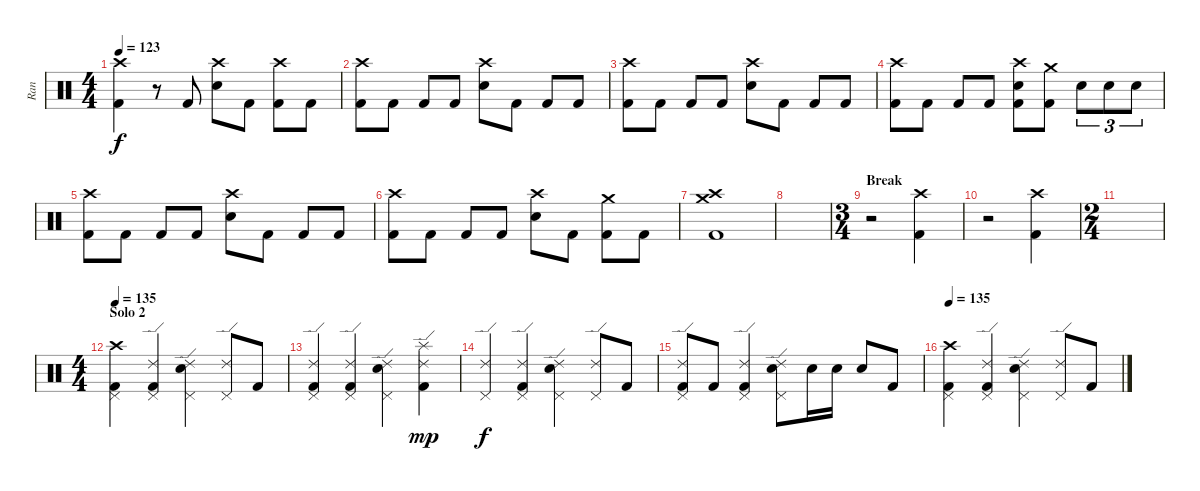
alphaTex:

\track ("Ran" "Ran") {instrument percussion}
\staff {score}
\articulation defaults
\ts (4 4)
\tempo 123
\clef neutral
\ks c
("Crash high (hit)" "Kick (hit) 2").4{dy f} r.8 "Kick (hit) 2".8 ("Crash high (hit)" "Snare (hit) 2").8 "Kick (hit) 2".8 ("Crash high (hit)" "Kick (hit) 2").8 "Kick (hit) 2".8 |
("Crash high (hit)" "Kick (hit) 2").8 "Kick (hit) 2".8 "Kick (hit) 2".8 "Kick (hit) 2".8 ("Crash high (hit)" "Snare (hit) 2").8 "Kick (hit) 2".8 "Kick (hit) 2".8 "Kick (hit) 2".8 |
("Crash high (hit)" "Kick (hit) 2").8 "Kick (hit) 2".8 "Kick (hit) 2".8 "Kick (hit) 2".8 ("Crash high (hit)" "Snare (hit) 2").8 "Kick (hit) 2".8 "Kick (hit) 2".8 "Kick (hit) 2".8 |
("Crash high (hit)" "Kick (hit) 2").8 "Kick (hit) 2".8 "Kick (hit) 2".8 "Kick (hit) 2".8 ("Crash high (hit)" "Snare (hit) 2" "Kick (hit) 2").8 ("Crash medium (hit)" "Kick (hit) 2").8 "Snare (hit) 2".8{tu (3 2)} "Snare (hit) 2".8{tu (3 2)} "Snare (hit) 2".8{tu (3 2)} |
("Crash high (hit)" "Kick (hit) 2").8 "Kick (hit) 2".8 "Kick (hit) 2".8 "Kick (hit) 2".8 ("Crash high (hit)" "Snare (hit) 2").8 "Kick (hit) 2".8 "Kick (hit) 2".8 "Kick (hit) 2".8 |
("Crash high (hit)" "Kick (hit) 2").8 "Kick (hit) 2".8 "Kick (hit) 2".8 "Kick (hit) 2".8 ("Crash high (hit)" "Snare (hit) 2").8 "Kick (hit) 2".8 ("Crash medium (hit)" "Kick (hit) 2").8 "Kick (hit) 2".8 |
("Crash high (hit)" "Crash medium (hit)" "Kick (hit) 2").1 |
|
\ts (3 4)
\section ("" "Break")
r.2 ("Crash high (hit)" "Kick (hit) 2").4 |
r.2 ("Crash high (hit)" "Kick (hit) 2").4 |
\ts (2 4)
|
\ts (4 4)
\section ("" "Solo 2")
\tempo 135
("Crash high (hit)" "Pedal Hi-Hat (hit)" "Kick (hit) 2").4 ("Ride (edge) 2" "Pedal Hi-Hat (hit)" "Kick (hit) 2").4 ("Ride (edge) 2" "Snare (hit) 2" "Pedal Hi-Hat (hit)").4 ("Ride (edge) 2" "Pedal Hi-Hat (hit)").8 "Kick (hit) 2".8 |
("Ride (edge) 2" "Pedal Hi-Hat (hit)" "Kick (hit) 2").4 ("Ride (edge) 2" "Pedal Hi-Hat (hit)" "Kick (hit) 2").4 ("Ride (edge) 2" "Snare (hit) 2" "Pedal Hi-Hat (hit)").4 ("Ride (edge) 2" "Splash (hit)" "Kick (hit) 2").4{dy mp} |
("Ride (edge) 2" "Pedal Hi-Hat (hit)").4{dy f} ("Ride (edge) 2" "Pedal Hi-Hat (hit)" "Kick (hit) 2").4 ("Ride (edge) 2" "Snare (hit) 2" "Pedal Hi-Hat (hit)").4 ("Ride (edge) 2" "Pedal Hi-Hat (hit)").8 "Kick (hit) 2".8 |
("Ride (edge) 2" "Pedal Hi-Hat (hit)" "Kick (hit) 2").8 "Kick (hit) 2".8 ("Ride (edge) 2" "Pedal Hi-Hat (hit)" "Kick (hit) 2").4 ("Ride (edge) 2" "Snare (hit) 2" "Pedal Hi-Hat (hit)").8 "Snare (hit) 2".16 "Snare (hit) 2".16 "Snare (hit) 2".8 "Kick (hit) 2".8 |
\tempo 135
("Crash high (hit)" "Pedal Hi-Hat (hit)" "Kick (hit) 2").4 ("Ride (edge) 2" "Pedal Hi-Hat (hit)" "Kick (hit) 2").4 ("Ride (edge) 2" "Snare (hit) 2" "Pedal Hi-Hat (hit)").4 ("Ride (edge) 2" "Pedal Hi-Hat (hit)").8 "Kick (hit) 2".8
